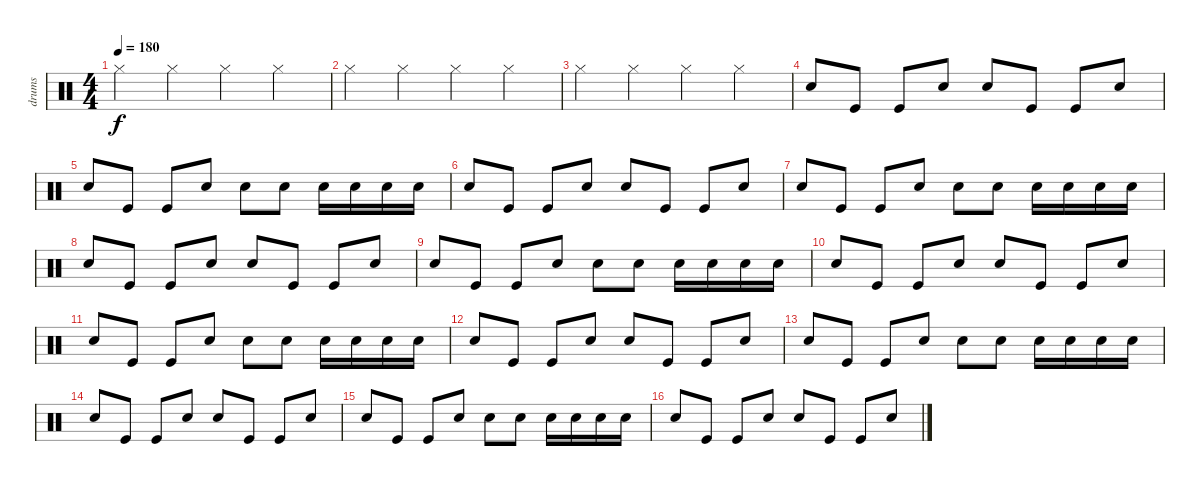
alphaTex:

\track ("drums" "drums") {instrument percussion}
\staff {score}
\articulation defaults
\ts (4 4)
\tempo 180
\clef neutral
\ks c "Hi-Hat (closed)".4{dy f} "Hi-Hat (closed)".4 "Hi-Hat (closed)".4 "Hi-Hat (closed)".4
|
"Hi-Hat (closed)".4 "Hi-Hat (closed)".4 "Hi-Hat (closed)".4 "Hi-Hat (closed)".4 |
"Hi-Hat (closed)".4 "Hi-Hat (closed)".4 "Hi-Hat (closed)".4 "Hi-Hat (closed)".4 |
"Electric Snare (hit)".8 "Kick (hit)".8 "Kick (hit)".8 "Electric Snare (hit)".8 "Electric Snare (hit)".8 "Kick (hit)".8 "Kick (hit)".8 "Electric Snare (hit)".8 |
"Electric Snare (hit)".8 "Kick (hit)".8 "Kick (hit)".8 "Electric Snare (hit)".8 "Electric Snare (hit)".8 "Electric Snare (hit)".8 "Electric Snare (hit)".16 "Electric Snare (hit)".16 "Electric Snare (hit)".16 "Electric Snare (hit)".16 |
"Electric Snare (hit)".8 "Kick (hit)".8 "Kick (hit)".8 "Electric Snare (hit)".8 "Electric Snare (hit)".8 "Kick (hit)".8 "Kick (hit)".8 "Electric Snare (hit)".8 |
"Electric Snare (hit)".8 "Kick (hit)".8 "Kick (hit)".8 "Electric Snare (hit)".8 "Electric Snare (hit)".8 "Electric Snare (hit)".8 "Electric Snare (hit)".16 "Electric Snare (hit)".16 "Electric Snare (hit)".16 "Electric Snare (hit)".16 |
"Electric Snare (hit)".8 "Kick (hit)".8 "Kick (hit)".8 "Electric Snare (hit)".8 "Electric Snare (hit)".8 "Kick (hit)".8 "Kick (hit)".8 "Electric Snare (hit)".8 |
"Electric Snare (hit)".8 "Kick (hit)".8 "Kick (hit)".8 "Electric Snare (hit)".8 "Electric Snare (hit)".8 "Electric Snare (hit)".8 "Electric Snare (hit)".16 "Electric Snare (hit)".16 "Electric Snare (hit)".16 "Electric Snare (hit)".16 |
"Electric Snare (hit)".8 "Kick (hit)".8 "Kick (hit)".8 "Electric Snare (hit)".8 "Electric Snare (hit)".8 "Kick (hit)".8 "Kick (hit)".8 "Electric Snare (hit)".8 |
"Electric Snare (hit)".8 "Kick (hit)".8 "Kick (hit)".8 "Electric Snare (hit)".8 "Electric Snare (hit)".8 "Electric Snare (hit)".8 "Electric Snare (hit)".16 "Electric Snare (hit)".16 "Electric Snare (hit)".16 "Electric Snare (hit)".16 |
"Electric Snare (hit)".8 "Kick (hit)".8 "Kick (hit)".8 "Electric Snare (hit)".8 "Electric Snare (hit)".8 "Kick (hit)".8 "Kick (hit)".8 "Electric Snare (hit)".8 |
"Electric Snare (hit)".8 "Kick (hit)".8 "Kick (hit)".8 "Electric Snare (hit)".8 "Electric Snare (hit)".8 "Electric Snare (hit)".8 "Electric Snare (hit)".16 "Electric Snare (hit)".16 "Electric Snare (hit)".16 "Electric Snare (hit)".16 |
"Electric Snare (hit)".8 "Kick (hit)".8 "Kick (hit)".8 "Electric Snare (hit)".8 "Electric Snare (hit)".8 "Kick (hit)".8 "Kick (hit)".8 "Electric Snare (hit)".8 |
"Electric Snare (hit)".8 "Kick (hit)".8 "Kick (hit)".8 "Electric Snare (hit)".8 "Electric Snare (hit)".8 "Electric Snare (hit)".8 "Electric Snare (hit)".16 "Electric Snare (hit)".16 "Electric Snare (hit)".16 "Electric Snare (hit)".16 |
"Electric Snare (hit)".8 "Kick (hit)".8 "Kick (hit)".8 "Electric Snare (hit)".8 "Electric Snare (hit)".8 "Kick (hit)".8 "Kick (hit)".8 "Electric Snare (hit)".8
